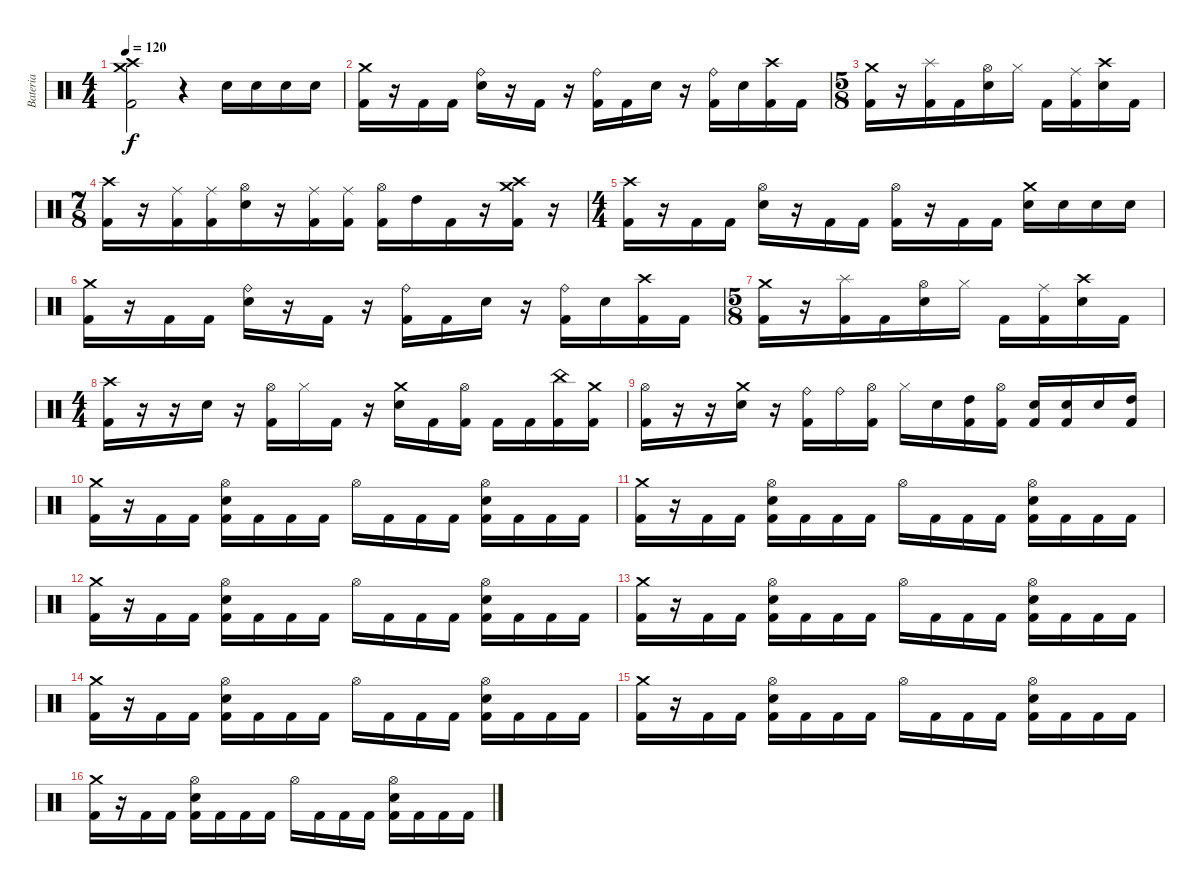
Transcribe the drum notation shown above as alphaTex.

\track ("Bateria" "Bateria") {instrument percussion}
\staff {score}
\articulation defaults
\ts (4 4)
\tempo 120
\clef neutral
\ks c
("Crash medium (hit)" "Crash high (hit)" "Kick (hit) 2").2{dy f} r.4 "Electric Snare (hit)".16 "Electric Snare (hit)".16 "Electric Snare (hit)".16 "Electric Snare (hit)".16 |
("Crash medium (hit)" "Kick (hit) 2").16 r.16 "Kick (hit) 2".16 "Kick (hit) 2".16 ("Ride (bell)" "Electric Snare (hit)").16 r.16 "Kick (hit) 2".16 r.16 ("Ride (bell)" "Kick (hit) 2").16 "Kick (hit) 2".16 "Electric Snare (hit)".16 r.16 ("Ride (bell)" "Kick (hit) 2").16 "Electric Snare (hit)".16 ("Crash high (hit)" "Kick (hit) 2").16 "Kick (hit) 2".16 |
\ts (5 8)
("Crash medium (hit)" "Kick (hit) 2").16 r.16 ("Splash (hit)" "Kick (hit) 2").16 "Kick (hit) 2".16 ("Hi-Hat (open)" "Electric Snare (hit)").16 "Hi-Hat (closed)".16 "Kick (hit) 2".16 ("Ride (middle)" "Kick (hit) 2").16 ("Crash high (hit)" "Electric Snare (hit)").16 "Kick (hit) 2".16 |
\ts (7 8)
("Crash high (hit)" "Kick (hit) 2").16 r.16 ("Ride (middle)" "Kick (hit) 2").16 ("Ride (middle)" "Kick (hit) 2").16 ("Hi-Hat (open)" "Electric Snare (hit)").16 r.16 ("Ride (middle)" "Kick (hit) 2").16 ("Ride (middle)" "Kick (hit) 2").16 ("Hi-Hat (open)" "Kick (hit) 2").16 "High Tom (hit)".16 "Kick (hit) 2".16 r.16 ("Crash medium (hit)" "Crash high (hit)" "Kick (hit) 2").16 r.16 |
\ts (4 4)
("Crash high (hit)" "Kick (hit) 2").16 r.16 "Kick (hit) 2".16 "Kick (hit) 2".16 ("Hi-Hat (open)" "Electric Snare (hit)").16 r.16 "Kick (hit) 2".16 "Kick (hit) 2".16 ("Hi-Hat (open)" "Kick (hit) 2").16 r.16 "Kick (hit) 2".16 "Kick (hit) 2".16 ("Crash medium (hit)" "Electric Snare (hit)").16 "Electric Snare (hit)".16 "Electric Snare (hit)".16 "Electric Snare (hit)".16 |
("Crash medium (hit)" "Kick (hit) 2").16 r.16 "Kick (hit) 2".16 "Kick (hit) 2".16 ("Ride (bell)" "Electric Snare (hit)").16 r.16 "Kick (hit) 2".16 r.16 ("Ride (bell)" "Kick (hit) 2").16 "Kick (hit) 2".16 "Electric Snare (hit)".16 r.16 ("Ride (bell)" "Kick (hit) 2").16 "Electric Snare (hit)".16 ("Crash high (hit)" "Kick (hit) 2").16 "Kick (hit) 2".16 |
\ts (5 8)
("Crash medium (hit)" "Kick (hit) 2").16 r.16 ("Splash (hit)" "Kick (hit) 2").16 "Kick (hit) 2".16 ("Hi-Hat (open)" "Electric Snare (hit)").16 "Hi-Hat (closed)".16 "Kick (hit) 2".16 ("Ride (middle)" "Kick (hit) 2").16 ("Crash high (hit)" "Electric Snare (hit)").16 "Kick (hit) 2".16 |
\ts (4 4)
("Crash high (hit)" "Kick (hit) 2").16 r.16 r.16 "Electric Snare (hit)".16 r.16 ("Hi-Hat (open)" "Kick (hit) 2").16 "Hi-Hat (closed)".16 "Kick (hit) 2".16 r.16 ("Crash medium (hit)" "Electric Snare (hit)").16 "Kick (hit) 2".16 ("Hi-Hat (open)" "Kick (hit) 2").16 "Kick (hit) 2".16 "Kick (hit) 2".16 ("China (hit)" "Kick (hit) 2").16 ("Crash medium (hit)" "Kick (hit) 2").16 |
("Hi-Hat (open)" "Kick (hit) 2").16 r.16 r.16 ("Crash medium (hit)" "Electric Snare (hit)").16 r.16 ("Ride (bell)" "Kick (hit) 2").16 "Ride (bell)".16 ("Hi-Hat (open)" "Kick (hit) 2").16 "Hi-Hat (closed)".16 "Electric Snare (hit)".16 ("High Tom (hit)" "Kick (hit) 2").16 ("Hi-Hat (open)" "Kick (hit) 2").16 ("Electric Snare (hit)" "Kick (hit) 2").16 ("Electric Snare (hit)" "Kick (hit) 2").16 "Electric Snare (hit)".16 ("High Tom (hit)" "Kick (hit) 2").16 |
("Crash medium (hit)" "Kick (hit) 2").16 r.16 "Kick (hit) 2".16 "Kick (hit) 2".16 ("Hi-Hat (open)" "Electric Snare (hit)" "Kick (hit) 2").16 "Kick (hit) 2".16 "Kick (hit) 2".16 "Kick (hit) 2".16 "Hi-Hat (open)".16 "Kick (hit) 2".16 "Kick (hit) 2".16 "Kick (hit) 2".16 ("Hi-Hat (open)" "Electric Snare (hit)" "Kick (hit) 2").16 "Kick (hit) 2".16 "Kick (hit) 2".16 "Kick (hit) 2".16 |
("Crash medium (hit)" "Kick (hit) 2").16 r.16 "Kick (hit) 2".16 "Kick (hit) 2".16 ("Hi-Hat (open)" "Electric Snare (hit)" "Kick (hit) 2").16 "Kick (hit) 2".16 "Kick (hit) 2".16 "Kick (hit) 2".16 "Hi-Hat (open)".16 "Kick (hit) 2".16 "Kick (hit) 2".16 "Kick (hit) 2".16 ("Hi-Hat (open)" "Electric Snare (hit)" "Kick (hit) 2").16 "Kick (hit) 2".16 "Kick (hit) 2".16 "Kick (hit) 2".16 |
("Crash medium (hit)" "Kick (hit) 2").16 r.16 "Kick (hit) 2".16 "Kick (hit) 2".16 ("Hi-Hat (open)" "Electric Snare (hit)" "Kick (hit) 2").16 "Kick (hit) 2".16 "Kick (hit) 2".16 "Kick (hit) 2".16 "Hi-Hat (open)".16 "Kick (hit) 2".16 "Kick (hit) 2".16 "Kick (hit) 2".16 ("Hi-Hat (open)" "Electric Snare (hit)" "Kick (hit) 2").16 "Kick (hit) 2".16 "Kick (hit) 2".16 "Kick (hit) 2".16 |
("Crash medium (hit)" "Kick (hit) 2").16 r.16 "Kick (hit) 2".16 "Kick (hit) 2".16 ("Hi-Hat (open)" "Electric Snare (hit)" "Kick (hit) 2").16 "Kick (hit) 2".16 "Kick (hit) 2".16 "Kick (hit) 2".16 "Hi-Hat (open)".16 "Kick (hit) 2".16 "Kick (hit) 2".16 "Kick (hit) 2".16 ("Hi-Hat (open)" "Electric Snare (hit)" "Kick (hit) 2").16 "Kick (hit) 2".16 "Kick (hit) 2".16 "Kick (hit) 2".16 |
("Crash medium (hit)" "Kick (hit) 2").16 r.16 "Kick (hit) 2".16 "Kick (hit) 2".16 ("Hi-Hat (open)" "Electric Snare (hit)" "Kick (hit) 2").16 "Kick (hit) 2".16 "Kick (hit) 2".16 "Kick (hit) 2".16 "Hi-Hat (open)".16 "Kick (hit) 2".16 "Kick (hit) 2".16 "Kick (hit) 2".16 ("Hi-Hat (open)" "Electric Snare (hit)" "Kick (hit) 2").16 "Kick (hit) 2".16 "Kick (hit) 2".16 "Kick (hit) 2".16 |
("Crash medium (hit)" "Kick (hit) 2").16 r.16 "Kick (hit) 2".16 "Kick (hit) 2".16 ("Hi-Hat (open)" "Electric Snare (hit)" "Kick (hit) 2").16 "Kick (hit) 2".16 "Kick (hit) 2".16 "Kick (hit) 2".16 "Hi-Hat (open)".16 "Kick (hit) 2".16 "Kick (hit) 2".16 "Kick (hit) 2".16 ("Hi-Hat (open)" "Electric Snare (hit)" "Kick (hit) 2").16 "Kick (hit) 2".16 "Kick (hit) 2".16 "Kick (hit) 2".16 |
("Crash medium (hit)" "Kick (hit) 2").16 r.16 "Kick (hit) 2".16 "Kick (hit) 2".16 ("Hi-Hat (open)" "Electric Snare (hit)" "Kick (hit) 2").16 "Kick (hit) 2".16 "Kick (hit) 2".16 "Kick (hit) 2".16 "Hi-Hat (open)".16 "Kick (hit) 2".16 "Kick (hit) 2".16 "Kick (hit) 2".16 ("Hi-Hat (open)" "Electric Snare (hit)" "Kick (hit) 2").16 "Kick (hit) 2".16 "Kick (hit) 2".16 "Kick (hit) 2".16
